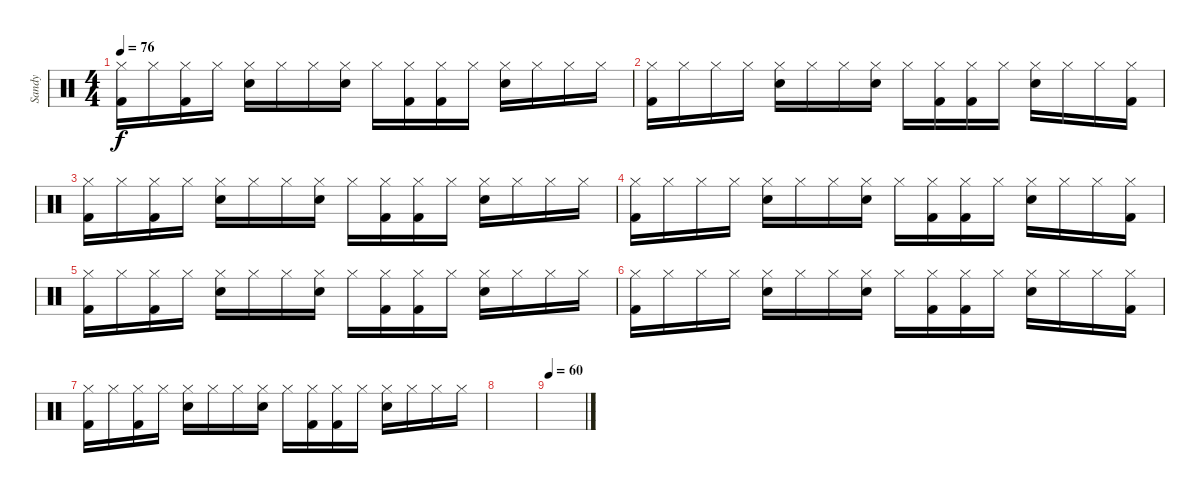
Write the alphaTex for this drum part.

\track ("Sandy" "Sandy") {instrument percussion}
\staff {score}
\articulation defaults
\ts (4 4)
\tempo 76
\clef neutral
\ks c
("Hi-Hat (closed)" "Kick (hit) 2").16{dy f} "Hi-Hat (closed)".16 ("Hi-Hat (closed)" "Kick (hit) 2").16 "Hi-Hat (closed)".16 ("Hi-Hat (closed)" "Electric Snare (hit)").16 "Hi-Hat (closed)".16 "Hi-Hat (closed)".16 ("Hi-Hat (closed)" "Electric Snare (hit)").16 "Hi-Hat (closed)".16 ("Hi-Hat (closed)" "Kick (hit) 2").16 ("Hi-Hat (closed)" "Kick (hit) 2").16 "Hi-Hat (closed)".16 ("Hi-Hat (closed)" "Electric Snare (hit)").16 "Hi-Hat (closed)".16 "Hi-Hat (closed)".16 "Hi-Hat (closed)".16 |
("Hi-Hat (closed)" "Kick (hit) 2").16 "Hi-Hat (closed)".16 "Hi-Hat (closed)".16 "Hi-Hat (closed)".16 ("Hi-Hat (closed)" "Electric Snare (hit)").16 "Hi-Hat (closed)".16 "Hi-Hat (closed)".16 ("Hi-Hat (closed)" "Electric Snare (hit)").16 "Hi-Hat (closed)".16 ("Hi-Hat (closed)" "Kick (hit) 2").16 ("Hi-Hat (closed)" "Kick (hit) 2").16 "Hi-Hat (closed)".16 ("Hi-Hat (closed)" "Electric Snare (hit)").16 "Hi-Hat (closed)".16 "Hi-Hat (closed)".16 ("Hi-Hat (closed)" "Kick (hit) 2").16 |
("Hi-Hat (closed)" "Kick (hit) 2").16 "Hi-Hat (closed)".16 ("Hi-Hat (closed)" "Kick (hit) 2").16 "Hi-Hat (closed)".16 ("Hi-Hat (closed)" "Electric Snare (hit)").16 "Hi-Hat (closed)".16 "Hi-Hat (closed)".16 ("Hi-Hat (closed)" "Electric Snare (hit)").16 "Hi-Hat (closed)".16 ("Hi-Hat (closed)" "Kick (hit) 2").16 ("Hi-Hat (closed)" "Kick (hit) 2").16 "Hi-Hat (closed)".16 ("Hi-Hat (closed)" "Electric Snare (hit)").16 "Hi-Hat (closed)".16 "Hi-Hat (closed)".16 "Hi-Hat (closed)".16 |
("Hi-Hat (closed)" "Kick (hit) 2").16 "Hi-Hat (closed)".16 "Hi-Hat (closed)".16 "Hi-Hat (closed)".16 ("Hi-Hat (closed)" "Electric Snare (hit)").16 "Hi-Hat (closed)".16 "Hi-Hat (closed)".16 ("Hi-Hat (closed)" "Electric Snare (hit)").16 "Hi-Hat (closed)".16 ("Hi-Hat (closed)" "Kick (hit) 2").16 ("Hi-Hat (closed)" "Kick (hit) 2").16 "Hi-Hat (closed)".16 ("Hi-Hat (closed)" "Electric Snare (hit)").16 "Hi-Hat (closed)".16 "Hi-Hat (closed)".16 ("Hi-Hat (closed)" "Kick (hit) 2").16 |
("Hi-Hat (closed)" "Kick (hit) 2").16 "Hi-Hat (closed)".16 ("Hi-Hat (closed)" "Kick (hit) 2").16 "Hi-Hat (closed)".16 ("Hi-Hat (closed)" "Electric Snare (hit)").16 "Hi-Hat (closed)".16 "Hi-Hat (closed)".16 ("Hi-Hat (closed)" "Electric Snare (hit)").16 "Hi-Hat (closed)".16 ("Hi-Hat (closed)" "Kick (hit) 2").16 ("Hi-Hat (closed)" "Kick (hit) 2").16 "Hi-Hat (closed)".16 ("Hi-Hat (closed)" "Electric Snare (hit)").16 "Hi-Hat (closed)".16 "Hi-Hat (closed)".16 "Hi-Hat (closed)".16 |
("Hi-Hat (closed)" "Kick (hit) 2").16 "Hi-Hat (closed)".16 "Hi-Hat (closed)".16 "Hi-Hat (closed)".16 ("Hi-Hat (closed)" "Electric Snare (hit)").16 "Hi-Hat (closed)".16 "Hi-Hat (closed)".16 ("Hi-Hat (closed)" "Electric Snare (hit)").16 "Hi-Hat (closed)".16 ("Hi-Hat (closed)" "Kick (hit) 2").16 ("Hi-Hat (closed)" "Kick (hit) 2").16 "Hi-Hat (closed)".16 ("Hi-Hat (closed)" "Electric Snare (hit)").16 "Hi-Hat (closed)".16 "Hi-Hat (closed)".16 ("Hi-Hat (closed)" "Kick (hit) 2").16 |
("Hi-Hat (closed)" "Kick (hit) 2").16 "Hi-Hat (closed)".16 ("Hi-Hat (closed)" "Kick (hit) 2").16 "Hi-Hat (closed)".16 ("Hi-Hat (closed)" "Electric Snare (hit)").16 "Hi-Hat (closed)".16 "Hi-Hat (closed)".16 ("Hi-Hat (closed)" "Electric Snare (hit)").16 "Hi-Hat (closed)".16 ("Hi-Hat (closed)" "Kick (hit) 2").16 ("Hi-Hat (closed)" "Kick (hit) 2").16 "Hi-Hat (closed)".16 ("Hi-Hat (closed)" "Electric Snare (hit)").16 "Hi-Hat (closed)".16 "Hi-Hat (closed)".16 "Hi-Hat (closed)".16 |
|
\tempo 60
